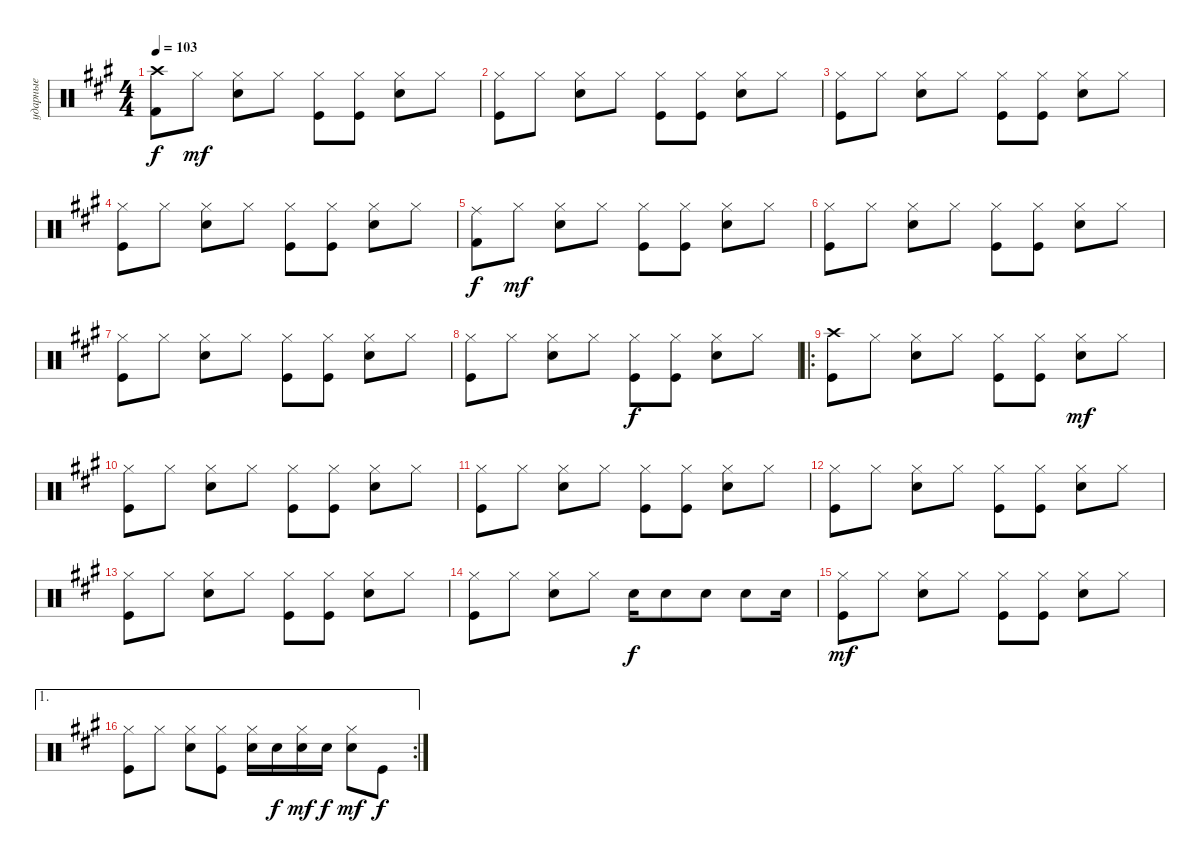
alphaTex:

\track ("ударные" "ударные") {instrument percussion}
\staff {score}
\articulation defaults
\ts (4 4)
\tempo 103
\clef neutral
\ks f#minor
("Crash high (hit)" "Kick (hit) 2").8{dy f} "Hi-Hat (closed)".8{dy mf} ("Hi-Hat (closed)" "Electric Snare (hit)").8 "Hi-Hat (closed)".8 ("Hi-Hat (closed)" "Kick (hit)").8 ("Hi-Hat (closed)" "Kick (hit)").8 ("Hi-Hat (closed)" "Electric Snare (hit)").8 "Hi-Hat (closed)".8 |
("Kick (hit)" "Hi-Hat (closed)").8 "Hi-Hat (closed)".8 ("Hi-Hat (closed)" "Electric Snare (hit)").8 "Hi-Hat (closed)".8 ("Hi-Hat (closed)" "Kick (hit)").8 ("Hi-Hat (closed)" "Kick (hit)").8 ("Hi-Hat (closed)" "Electric Snare (hit)").8 "Hi-Hat (closed)".8 |
("Kick (hit)" "Hi-Hat (closed)").8 "Hi-Hat (closed)".8 ("Hi-Hat (closed)" "Electric Snare (hit)").8 "Hi-Hat (closed)".8 ("Hi-Hat (closed)" "Kick (hit)").8 ("Hi-Hat (closed)" "Kick (hit)").8 ("Hi-Hat (closed)" "Electric Snare (hit)").8 "Hi-Hat (closed)".8 |
("Kick (hit)" "Hi-Hat (closed)").8 "Hi-Hat (closed)".8 ("Hi-Hat (closed)" "Electric Snare (hit)").8 "Hi-Hat (closed)".8 ("Hi-Hat (closed)" "Kick (hit)").8 ("Hi-Hat (closed)" "Kick (hit)").8 ("Hi-Hat (closed)" "Electric Snare (hit)").8 "Hi-Hat (closed)".8 |
("Ride (middle)" "Kick (hit) 2").8{dy f} "Hi-Hat (closed)".8{dy mf} ("Hi-Hat (closed)" "Electric Snare (hit)").8 "Hi-Hat (closed)".8 ("Hi-Hat (closed)" "Kick (hit)").8 ("Hi-Hat (closed)" "Kick (hit)").8 ("Hi-Hat (closed)" "Electric Snare (hit)").8 "Hi-Hat (closed)".8 |
("Kick (hit)" "Hi-Hat (closed)").8 "Hi-Hat (closed)".8 ("Hi-Hat (closed)" "Electric Snare (hit)").8 "Hi-Hat (closed)".8 ("Hi-Hat (closed)" "Kick (hit)").8 ("Hi-Hat (closed)" "Kick (hit)").8 ("Hi-Hat (closed)" "Electric Snare (hit)").8 "Hi-Hat (closed)".8 |
("Kick (hit)" "Hi-Hat (closed)").8 "Hi-Hat (closed)".8 ("Hi-Hat (closed)" "Electric Snare (hit)").8 "Hi-Hat (closed)".8 ("Hi-Hat (closed)" "Kick (hit)").8 ("Hi-Hat (closed)" "Kick (hit)").8 ("Hi-Hat (closed)" "Electric Snare (hit)").8 "Hi-Hat (closed)".8 |
("Kick (hit)" "Hi-Hat (closed)").8 "Hi-Hat (closed)".8 ("Hi-Hat (closed)" "Electric Snare (hit)").8 "Hi-Hat (closed)".8 ("Hi-Hat (closed)" "Kick (hit)").8{dy f} ("Hi-Hat (closed)" "Kick (hit)").8 ("Hi-Hat (closed)" "Electric Snare (hit)").8 "Hi-Hat (closed)".8 |
\ro
("Kick (hit)" "Crash high (hit)").8 "Hi-Hat (closed)".8 ("Hi-Hat (closed)" "Electric Snare (hit)").8 "Hi-Hat (closed)".8 ("Hi-Hat (closed)" "Kick (hit)").8 ("Hi-Hat (closed)" "Kick (hit)").8 ("Hi-Hat (closed)" "Electric Snare (hit)").8{dy mf} "Hi-Hat (closed)".8 |
("Kick (hit)" "Hi-Hat (closed)").8 "Hi-Hat (closed)".8 ("Hi-Hat (closed)" "Electric Snare (hit)").8 "Hi-Hat (closed)".8 ("Hi-Hat (closed)" "Kick (hit)").8 ("Hi-Hat (closed)" "Kick (hit)").8 ("Hi-Hat (closed)" "Electric Snare (hit)").8 "Hi-Hat (closed)".8 |
("Kick (hit)" "Hi-Hat (closed)").8 "Hi-Hat (closed)".8 ("Hi-Hat (closed)" "Electric Snare (hit)").8 "Hi-Hat (closed)".8 ("Hi-Hat (closed)" "Kick (hit)").8 ("Hi-Hat (closed)" "Kick (hit)").8 ("Hi-Hat (closed)" "Electric Snare (hit)").8 "Hi-Hat (closed)".8 |
("Kick (hit)" "Hi-Hat (closed)").8 "Hi-Hat (closed)".8 ("Hi-Hat (closed)" "Electric Snare (hit)").8 "Hi-Hat (closed)".8 ("Hi-Hat (closed)" "Kick (hit)").8 ("Hi-Hat (closed)" "Kick (hit)").8 ("Hi-Hat (closed)" "Electric Snare (hit)").8 "Hi-Hat (closed)".8 |
("Kick (hit)" "Hi-Hat (closed)").8 "Hi-Hat (closed)".8 ("Hi-Hat (closed)" "Electric Snare (hit)").8 "Hi-Hat (closed)".8 ("Hi-Hat (closed)" "Kick (hit)").8 ("Hi-Hat (closed)" "Kick (hit)").8 ("Hi-Hat (closed)" "Electric Snare (hit)").8 "Hi-Hat (closed)".8 |
("Kick (hit)" "Hi-Hat (closed)").8 "Hi-Hat (closed)".8 ("Hi-Hat (closed)" "Electric Snare (hit)").8 "Hi-Hat (closed)".8 "Electric Snare (hit)".16{dy f} "Electric Snare (hit)".8 "Snare (hit) 2".8 "Snare (hit) 2".8 "Electric Snare (hit)".16 |
("Kick (hit)" "Hi-Hat (closed)").8{dy mf} "Hi-Hat (closed)".8 ("Hi-Hat (closed)" "Electric Snare (hit)").8 "Hi-Hat (closed)".8 ("Hi-Hat (closed)" "Kick (hit)").8 ("Hi-Hat (closed)" "Kick (hit)").8 ("Hi-Hat (closed)" "Electric Snare (hit)").8 "Hi-Hat (closed)".8 |
\ae 1
\rc 2
("Kick (hit)" "Hi-Hat (closed)").8 "Hi-Hat (closed)".8 ("Hi-Hat (closed)" "Electric Snare (hit)").8 ("Hi-Hat (closed)" "Kick (hit)").8 ("Snare (hit) 2" "Hi-Hat (closed)").16 "Snare (hit) 2".16{dy f} ("Snare (hit) 2" "Hi-Hat (closed)").16{dy mf} "Snare (hit) 2".16{dy f} ("Snare (hit) 2" "Hi-Hat (closed)").8{dy mf} "Kick (hit)".8{dy f}
